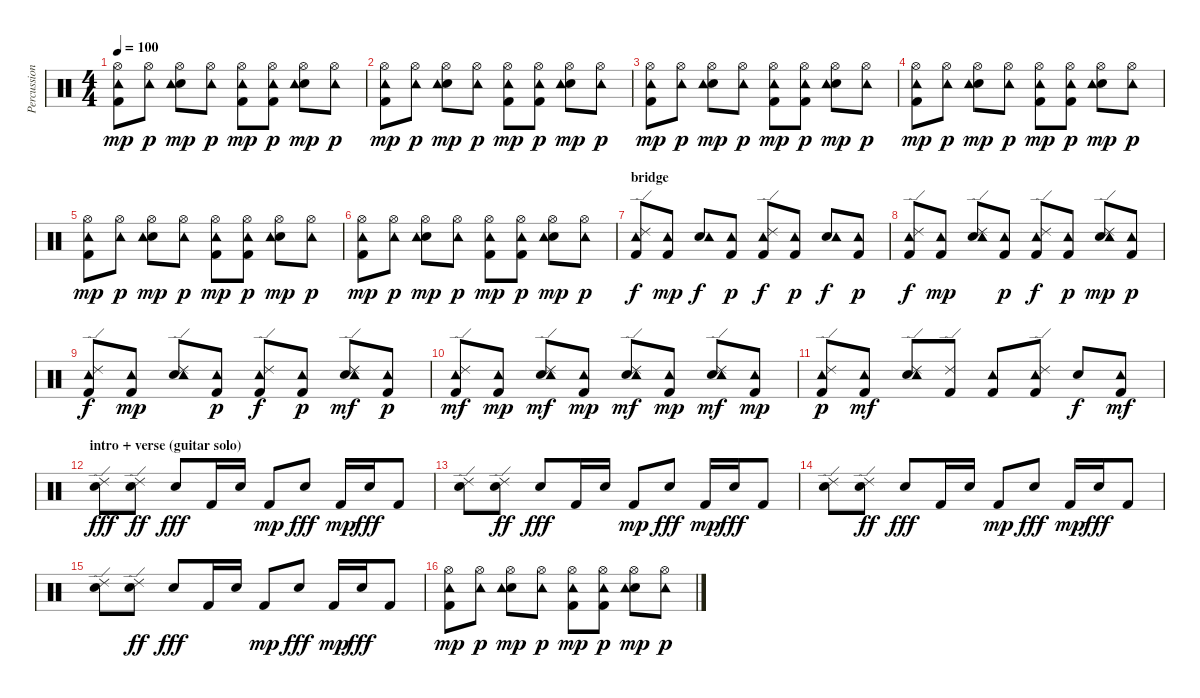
\track ("Percussions" "Percussion") {instrument percussion}
\staff {score}
\articulation defaults
\ts (4 4)
\tempo 100
\clef neutral
\ks c
("Kick (hit) 2" "Tambourine (hit)" "Hi-Hat (open)").8{dy mp} ("Tambourine (hit)" "Hi-Hat (open)").8{dy p} ("Snare (hit) 2" "Tambourine (hit)" "Hi-Hat (open)").8{dy mp} ("Tambourine (hit)" "Hi-Hat (open)").8{dy p} ("Kick (hit) 2" "Tambourine (hit)" "Hi-Hat (open)").8{dy mp} ("Kick (hit) 2" "Tambourine (hit)" "Hi-Hat (open)").8{dy p} ("Snare (hit) 2" "Tambourine (hit)" "Hi-Hat (open)").8{dy mp} ("Tambourine (hit)" "Hi-Hat (open)").8{dy p} |
("Kick (hit) 2" "Tambourine (hit)" "Hi-Hat (open)").8{dy mp} ("Tambourine (hit)" "Hi-Hat (open)").8{dy p} ("Snare (hit) 2" "Tambourine (hit)" "Hi-Hat (open)").8{dy mp} ("Tambourine (hit)" "Hi-Hat (open)").8{dy p} ("Kick (hit) 2" "Tambourine (hit)" "Hi-Hat (open)").8{dy mp} ("Kick (hit) 2" "Tambourine (hit)" "Hi-Hat (open)").8{dy p} ("Snare (hit) 2" "Tambourine (hit)" "Hi-Hat (open)").8{dy mp} ("Tambourine (hit)" "Hi-Hat (open)").8{dy p} |
("Kick (hit) 2" "Tambourine (hit)" "Hi-Hat (open)").8{dy mp} ("Tambourine (hit)" "Hi-Hat (open)").8{dy p} ("Snare (hit) 2" "Tambourine (hit)" "Hi-Hat (open)").8{dy mp} ("Tambourine (hit)" "Hi-Hat (open)").8{dy p} ("Kick (hit) 2" "Tambourine (hit)" "Hi-Hat (open)").8{dy mp} ("Kick (hit) 2" "Tambourine (hit)" "Hi-Hat (open)").8{dy p} ("Snare (hit) 2" "Tambourine (hit)" "Hi-Hat (open)").8{dy mp} ("Tambourine (hit)" "Hi-Hat (open)").8{dy p} |
("Kick (hit) 2" "Tambourine (hit)" "Hi-Hat (open)").8{dy mp} ("Tambourine (hit)" "Hi-Hat (open)").8{dy p} ("Snare (hit) 2" "Tambourine (hit)" "Hi-Hat (open)").8{dy mp} ("Tambourine (hit)" "Hi-Hat (open)").8{dy p} ("Kick (hit) 2" "Tambourine (hit)" "Hi-Hat (open)").8{dy mp} ("Kick (hit) 2" "Tambourine (hit)" "Hi-Hat (open)").8{dy p} ("Snare (hit) 2" "Tambourine (hit)" "Hi-Hat (open)").8{dy mp} ("Tambourine (hit)" "Hi-Hat (open)").8{dy p} |
("Kick (hit) 2" "Tambourine (hit)" "Hi-Hat (open)").8{dy mp} ("Tambourine (hit)" "Hi-Hat (open)").8{dy p} ("Snare (hit) 2" "Tambourine (hit)" "Hi-Hat (open)").8{dy mp} ("Tambourine (hit)" "Hi-Hat (open)").8{dy p} ("Kick (hit) 2" "Tambourine (hit)" "Hi-Hat (open)").8{dy mp} ("Kick (hit) 2" "Tambourine (hit)" "Hi-Hat (open)").8{dy p} ("Snare (hit) 2" "Tambourine (hit)" "Hi-Hat (open)").8{dy mp} ("Tambourine (hit)" "Hi-Hat (open)").8{dy p} |
("Kick (hit) 2" "Tambourine (hit)" "Hi-Hat (open)").8{dy mp} ("Tambourine (hit)" "Hi-Hat (open)").8{dy p} ("Snare (hit) 2" "Tambourine (hit)" "Hi-Hat (open)").8{dy mp} ("Tambourine (hit)" "Hi-Hat (open)").8{dy p} ("Kick (hit) 2" "Tambourine (hit)" "Hi-Hat (open)").8{dy mp} ("Kick (hit) 2" "Tambourine (hit)" "Hi-Hat (open)").8{dy p} ("Snare (hit) 2" "Tambourine (hit)" "Hi-Hat (open)").8{dy mp} ("Tambourine (hit)" "Hi-Hat (open)").8{dy p} |
\section ("" "bridge")
("Kick (hit) 2" "Tambourine (hit)" "Ride (edge) 2").8{dy f} ("Kick (hit) 2" "Tambourine (hit)").8{dy mp} ("Snare (hit) 2" "Tambourine (hit)").8{dy f} ("Kick (hit) 2" "Tambourine (hit)").8{dy p} ("Kick (hit) 2" "Tambourine (hit)" "Ride (edge) 2").8{dy f} ("Kick (hit) 2" "Tambourine (hit)").8{dy p} ("Snare (hit) 2" "Tambourine (hit)").8{dy f} ("Kick (hit) 2" "Tambourine (hit)").8{dy p} |
("Kick (hit) 2" "Tambourine (hit)" "Ride (edge) 2").8{dy f} ("Kick (hit) 2" "Tambourine (hit)").8{dy mp} ("Snare (hit) 2" "Tambourine (hit)" "Ride (edge) 2").8 ("Kick (hit) 2" "Tambourine (hit)").8{dy p} ("Kick (hit) 2" "Tambourine (hit)" "Ride (edge) 2").8{dy f} ("Kick (hit) 2" "Tambourine (hit)").8{dy p} ("Snare (hit) 2" "Tambourine (hit)" "Ride (edge) 2").8{dy mp} ("Kick (hit) 2" "Tambourine (hit)").8{dy p} |
("Kick (hit) 2" "Tambourine (hit)" "Ride (edge) 2").8{dy f} ("Kick (hit) 2" "Tambourine (hit)").8{dy mp} ("Snare (hit) 2" "Tambourine (hit)" "Ride (edge) 2").8 ("Kick (hit) 2" "Tambourine (hit)").8{dy p} ("Kick (hit) 2" "Tambourine (hit)" "Ride (edge) 2").8{dy f} ("Kick (hit) 2" "Tambourine (hit)").8{dy p} ("Snare (hit) 2" "Tambourine (hit)" "Ride (edge) 2").8{dy mf} ("Kick (hit) 2" "Tambourine (hit)").8{dy p} |
("Kick (hit) 2" "Tambourine (hit)" "Ride (edge) 2").8{dy mf} ("Kick (hit) 2" "Tambourine (hit)").8{dy mp} ("Snare (hit) 2" "Tambourine (hit)" "Ride (edge) 2").8{dy mf} ("Kick (hit) 2" "Tambourine (hit)").8{dy mp} ("Snare (hit) 2" "Tambourine (hit)" "Ride (edge) 2").8{dy mf} ("Kick (hit) 2" "Tambourine (hit)").8{dy mp} ("Snare (hit) 2" "Tambourine (hit)" "Ride (edge) 2").8{dy mf} ("Kick (hit) 2" "Tambourine (hit)").8{dy mp} |
("Kick (hit) 2" "Tambourine (hit)" "Ride (edge) 2").8{dy p} ("Kick (hit) 2" "Tambourine (hit)").8{dy mf} ("Snare (hit) 2" "Tambourine (hit)" "Ride (edge) 2").8 ("Kick (hit) 2" "Ride (edge) 2").8 ("Kick (hit) 2" "Tambourine (hit)").8 ("Kick (hit) 2" "Tambourine (hit)" "Ride (edge) 2").8 "Snare (hit) 2".8{dy f} ("Kick (hit) 2" "Tambourine (hit)").8{dy mf} |
\section ("" "intro + verse (guitar solo)")
("Snare (hit) 2" "Ride (edge) 2").8{dy fff} ("Snare (hit) 2" "Ride (edge) 2").8{dy ff} "Snare (hit) 2".8{dy fff} "Kick (hit) 2".16 "Snare (hit) 2".16 "Kick (hit) 2".8{dy mp} "Snare (hit) 2".8{dy fff} "Kick (hit) 2".16{dy mp} "Snare (hit) 2".16{dy fff} "Kick (hit) 2".8 |
("Snare (hit) 2" "Ride (edge) 2").8 ("Snare (hit) 2" "Ride (edge) 2").8{dy ff} "Snare (hit) 2".8{dy fff} "Kick (hit) 2".16 "Snare (hit) 2".16 "Kick (hit) 2".8{dy mp} "Snare (hit) 2".8{dy fff} "Kick (hit) 2".16{dy mp} "Snare (hit) 2".16{dy fff} "Kick (hit) 2".8 |
("Snare (hit) 2" "Ride (edge) 2").8 ("Snare (hit) 2" "Ride (edge) 2").8{dy ff} "Snare (hit) 2".8{dy fff} "Kick (hit) 2".16 "Snare (hit) 2".16 "Kick (hit) 2".8{dy mp} "Snare (hit) 2".8{dy fff} "Kick (hit) 2".16{dy mp} "Snare (hit) 2".16{dy fff} "Kick (hit) 2".8 |
("Snare (hit) 2" "Ride (edge) 2").8 ("Snare (hit) 2" "Ride (edge) 2").8{dy ff} "Snare (hit) 2".8{dy fff} "Kick (hit) 2".16 "Snare (hit) 2".16 "Kick (hit) 2".8{dy mp} "Snare (hit) 2".8{dy fff} "Kick (hit) 2".16{dy mp} "Snare (hit) 2".16{dy fff} "Kick (hit) 2".8 |
("Kick (hit) 2" "Tambourine (hit)" "Hi-Hat (open)").8{dy mp} ("Tambourine (hit)" "Hi-Hat (open)").8{dy p} ("Snare (hit) 2" "Tambourine (hit)" "Hi-Hat (open)").8{dy mp} ("Tambourine (hit)" "Hi-Hat (open)").8{dy p} ("Kick (hit) 2" "Tambourine (hit)" "Hi-Hat (open)").8{dy mp} ("Kick (hit) 2" "Tambourine (hit)" "Hi-Hat (open)").8{dy p} ("Snare (hit) 2" "Tambourine (hit)" "Hi-Hat (open)").8{dy mp} ("Tambourine (hit)" "Hi-Hat (open)").8{dy p}
